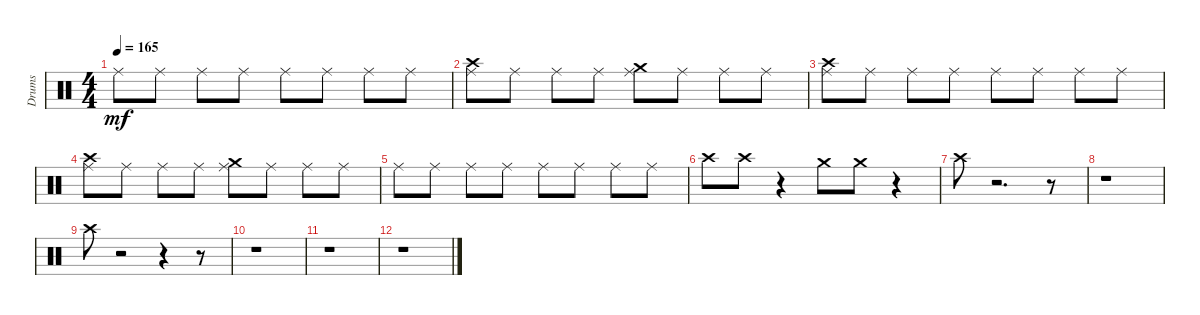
\track ("Drums" "Drums") {instrument percussion}
\staff {score}
\articulation defaults
\ts (4 4)
\tempo 165
\clef neutral
\ks c "Ride (middle)".8{dy mf} "Ride (middle)".8 "Ride (middle)".8 "Ride (middle)".8 "Ride (middle)".8 "Ride (middle)".8 "Ride (middle)".8 "Ride (middle)".8
|
("Ride (middle)" "Crash high (hit)").8 "Ride (middle)".8 "Ride (middle)".8 "Ride (middle)".8 ("Ride (middle)" "Crash medium (hit)").8 "Ride (middle)".8 "Ride (middle)".8 "Ride (middle)".8 |
("Ride (middle)" "Crash high (hit)").8 "Ride (middle)".8 "Ride (middle)".8 "Ride (middle)".8 "Ride (middle)".8 "Ride (middle)".8 "Ride (middle)".8 "Ride (middle)".8 |
("Ride (middle)" "Crash high (hit)").8 "Ride (middle)".8 "Ride (middle)".8 "Ride (middle)".8 ("Ride (middle)" "Crash medium (hit)").8 "Ride (middle)".8 "Ride (middle)".8 "Ride (middle)".8 |
"Ride (middle)".8 "Ride (middle)".8 "Ride (middle)".8 "Ride (middle)".8 "Ride (middle)".8 "Ride (middle)".8 "Ride (middle)".8 "Ride (middle)".8 |
"Crash high (hit)".8 "Crash high (hit)".8 r.4 "Crash medium (hit)".8 "Crash medium (hit)".8 r.4 |
"Crash high (hit)".8 r.2{d} r.8 |
r.1 |
"Crash high (hit)".8 r.2 r.4 r.8 |
r.1 |
r.1 |
r.1
